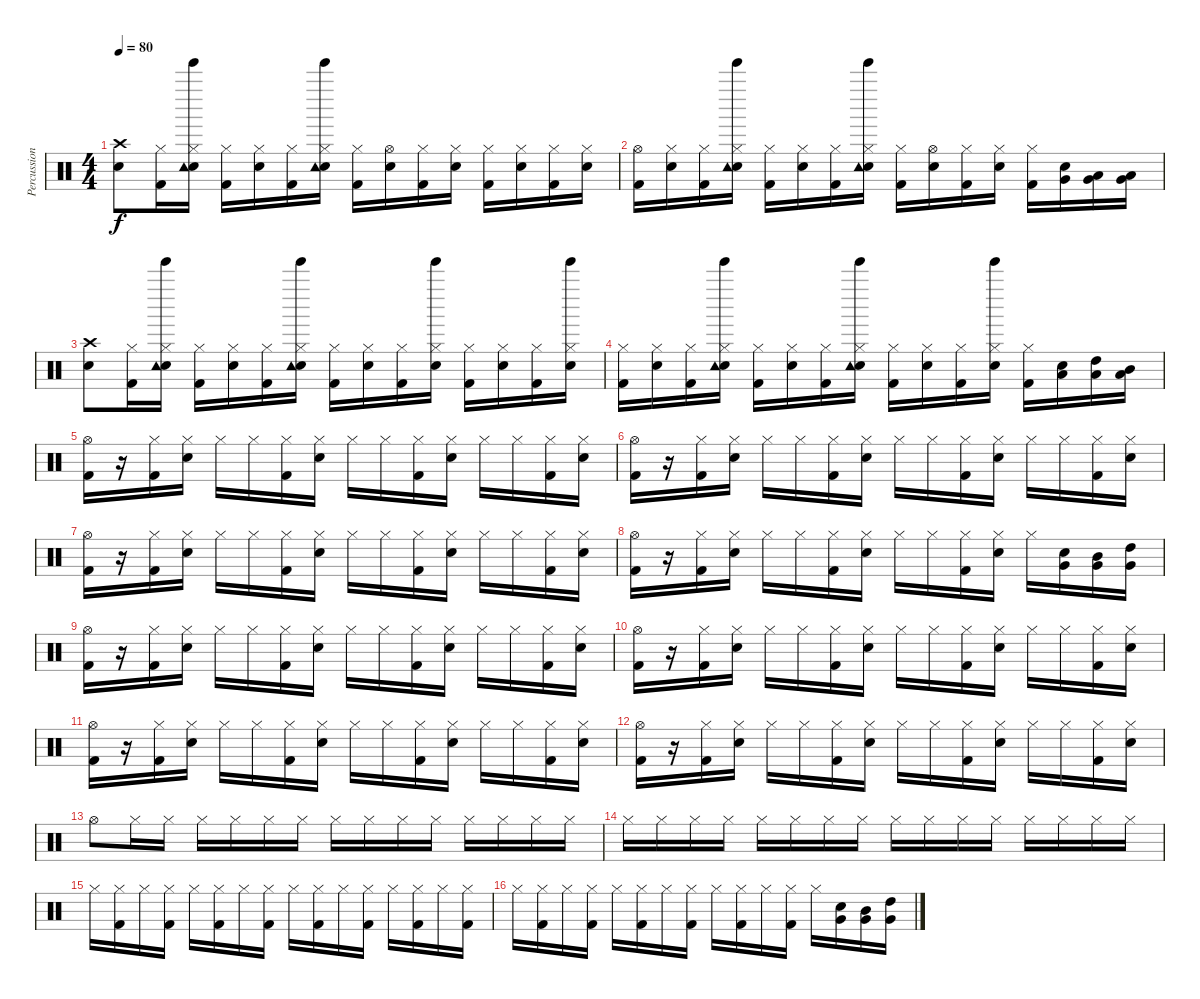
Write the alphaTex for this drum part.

\track ("Percussion" "Percussion") {instrument percussion}
\staff {score}
\articulation defaults
\ts (4 4)
\tempo 80
\clef neutral
\ks c
("Crash high (hit)" "Snare (hit) 2").8{dy f} ("Kick (hit) 2" "Hi-Hat (closed)").16 ("Snare (hit) 2" "Hi-Hat (closed)" "Tambourine (hit)" "Tinkle Bell (hit)").16 ("Kick (hit) 2" "Hi-Hat (closed)").16 ("Snare (hit) 2" "Hi-Hat (closed)").16 ("Kick (hit) 2" "Hi-Hat (closed)").16 ("Snare (hit) 2" "Hi-Hat (closed)" "Tambourine (hit)" "Tinkle Bell (hit)").16 ("Kick (hit) 2" "Hi-Hat (closed)").16 ("Snare (hit) 2" "Hi-Hat (open)").16 ("Kick (hit) 2" "Hi-Hat (closed)").16 ("Snare (hit) 2" "Hi-Hat (closed)").16 ("Kick (hit) 2" "Hi-Hat (closed)").16 ("Snare (hit) 2" "Hi-Hat (closed)").16 ("Kick (hit) 2" "Hi-Hat (closed)").16 ("Snare (hit) 2" "Hi-Hat (closed)").16 |
("Kick (hit) 2" "Hi-Hat (open)").16 ("Hi-Hat (closed)" "Snare (hit) 2").16 ("Kick (hit) 2" "Hi-Hat (closed)").16 ("Snare (hit) 2" "Hi-Hat (closed)" "Tambourine (hit)" "Tinkle Bell (hit)").16 ("Kick (hit) 2" "Hi-Hat (closed)").16 ("Snare (hit) 2" "Hi-Hat (closed)").16 ("Kick (hit) 2" "Hi-Hat (closed)").16 ("Snare (hit) 2" "Hi-Hat (closed)" "Tambourine (hit)" "Tinkle Bell (hit)").16 ("Kick (hit) 2" "Hi-Hat (closed)").16 ("Snare (hit) 2" "Hi-Hat (open)").16 ("Kick (hit) 2" "Hi-Hat (closed)").16 ("Snare (hit) 2" "Hi-Hat (closed)").16 ("Kick (hit) 2" "Hi-Hat (closed)").16 ("Snare (hit) 2" "Very Low Tom (hit)").16 ("Low Floor Tom (hit)" "Very Low Tom (hit)").16 ("Low Floor Tom (hit)" "Very Low Tom (hit)").16 |
("Crash high (hit)" "Snare (hit) 2").8 ("Kick (hit) 2" "Hi-Hat (closed)").16 ("Snare (hit) 2" "Hi-Hat (closed)" "Tambourine (hit)" "Tinkle Bell (hit)").16 ("Kick (hit) 2" "Hi-Hat (closed)").16 ("Snare (hit) 2" "Hi-Hat (closed)").16 ("Kick (hit) 2" "Hi-Hat (closed)").16 ("Snare (hit) 2" "Hi-Hat (closed)" "Tambourine (hit)" "Tinkle Bell (hit)").16 ("Kick (hit) 2" "Hi-Hat (closed)").16 ("Snare (hit) 2" "Hi-Hat (closed)").16 ("Kick (hit) 2" "Hi-Hat (closed)").16 ("Snare (hit) 2" "Hi-Hat (closed)" "Tinkle Bell (hit)").16 ("Kick (hit) 2" "Hi-Hat (closed)").16 ("Snare (hit) 2" "Hi-Hat (closed)").16 ("Kick (hit) 2" "Hi-Hat (closed)").16 ("Snare (hit) 2" "Hi-Hat (closed)" "Tinkle Bell (hit)").16 |
("Kick (hit) 2" "Hi-Hat (closed)").16 ("Hi-Hat (closed)" "Snare (hit) 2").16 ("Kick (hit) 2" "Hi-Hat (closed)").16 ("Snare (hit) 2" "Hi-Hat (closed)" "Tambourine (hit)" "Tinkle Bell (hit)").16 ("Kick (hit) 2" "Hi-Hat (closed)").16 ("Snare (hit) 2" "Hi-Hat (closed)").16 ("Kick (hit) 2" "Hi-Hat (closed)").16 ("Snare (hit) 2" "Hi-Hat (closed)" "Tambourine (hit)" "Tinkle Bell (hit)").16 ("Kick (hit) 2" "Hi-Hat (closed)").16 ("Snare (hit) 2" "Hi-Hat (closed)").16 ("Kick (hit) 2" "Hi-Hat (closed)").16 ("Snare (hit) 2" "Hi-Hat (closed)" "Tinkle Bell (hit)").16 ("Kick (hit) 2" "Hi-Hat (closed)").16 ("Snare (hit) 2" "Low Floor Tom (hit)").16 ("Low Floor Tom (hit)" "High Tom (hit)").16 ("Low Floor Tom (hit)" "Mid Tom (hit)").16 |
("Hi-Hat (open)" "Kick (hit) 2").16 r.16 ("Hi-Hat (closed)" "Kick (hit) 2").16 ("Hi-Hat (closed)" "Snare (hit) 2").16 "Hi-Hat (closed)".16 "Hi-Hat (closed)".16 ("Hi-Hat (closed)" "Kick (hit) 2").16 ("Hi-Hat (closed)" "Snare (hit) 2").16 "Hi-Hat (closed)".16 "Hi-Hat (closed)".16 ("Hi-Hat (closed)" "Kick (hit) 2").16 ("Hi-Hat (closed)" "Snare (hit) 2").16 "Hi-Hat (closed)".16 "Hi-Hat (closed)".16 ("Hi-Hat (closed)" "Kick (hit) 2").16 ("Hi-Hat (closed)" "Snare (hit) 2").16 |
("Hi-Hat (open)" "Kick (hit) 2").16 r.16 ("Hi-Hat (closed)" "Kick (hit) 2").16 ("Hi-Hat (closed)" "Snare (hit) 2").16 "Hi-Hat (closed)".16 "Hi-Hat (closed)".16 ("Hi-Hat (closed)" "Kick (hit) 2").16 ("Hi-Hat (closed)" "Snare (hit) 2").16 "Hi-Hat (closed)".16 "Hi-Hat (closed)".16 ("Hi-Hat (closed)" "Kick (hit) 2").16 ("Hi-Hat (closed)" "Snare (hit) 2").16 "Hi-Hat (closed)".16 "Hi-Hat (closed)".16 ("Hi-Hat (closed)" "Kick (hit) 2").16 ("Hi-Hat (closed)" "Snare (hit) 2").16 |
("Hi-Hat (open)" "Kick (hit) 2").16 r.16 ("Hi-Hat (closed)" "Kick (hit) 2").16 ("Hi-Hat (closed)" "Snare (hit) 2").16 "Hi-Hat (closed)".16 "Hi-Hat (closed)".16 ("Hi-Hat (closed)" "Kick (hit) 2").16 ("Hi-Hat (closed)" "Snare (hit) 2").16 "Hi-Hat (closed)".16 "Hi-Hat (closed)".16 ("Hi-Hat (closed)" "Kick (hit) 2").16 ("Hi-Hat (closed)" "Snare (hit) 2").16 "Hi-Hat (closed)".16 "Hi-Hat (closed)".16 ("Hi-Hat (closed)" "Kick (hit) 2").16 ("Hi-Hat (closed)" "Snare (hit) 2").16 |
("Hi-Hat (open)" "Kick (hit) 2").16 r.16 ("Hi-Hat (closed)" "Kick (hit) 2").16 ("Hi-Hat (closed)" "Snare (hit) 2").16 "Hi-Hat (closed)".16 "Hi-Hat (closed)".16 ("Hi-Hat (closed)" "Kick (hit) 2").16 ("Hi-Hat (closed)" "Snare (hit) 2").16 "Hi-Hat (closed)".16 "Hi-Hat (closed)".16 ("Hi-Hat (closed)" "Kick (hit) 2").16 ("Hi-Hat (closed)" "Snare (hit) 2").16 "Hi-Hat (closed)".16 ("Very Low Tom (hit)" "Snare (hit) 2").16 ("Mid Tom (hit)" "Very Low Tom (hit)").16 ("High Tom (hit)" "Very Low Tom (hit)").16 |
("Hi-Hat (open)" "Kick (hit) 2").16 r.16 ("Hi-Hat (closed)" "Kick (hit) 2").16 ("Hi-Hat (closed)" "Snare (hit) 2").16 "Hi-Hat (closed)".16 "Hi-Hat (closed)".16 ("Hi-Hat (closed)" "Kick (hit) 2").16 ("Hi-Hat (closed)" "Snare (hit) 2").16 "Hi-Hat (closed)".16 "Hi-Hat (closed)".16 ("Hi-Hat (closed)" "Kick (hit) 2").16 ("Hi-Hat (closed)" "Snare (hit) 2").16 "Hi-Hat (closed)".16 "Hi-Hat (closed)".16 ("Hi-Hat (closed)" "Kick (hit) 2").16 ("Hi-Hat (closed)" "Snare (hit) 2").16 |
("Hi-Hat (open)" "Kick (hit) 2").16 r.16 ("Hi-Hat (closed)" "Kick (hit) 2").16 ("Hi-Hat (closed)" "Snare (hit) 2").16 "Hi-Hat (closed)".16 "Hi-Hat (closed)".16 ("Hi-Hat (closed)" "Kick (hit) 2").16 ("Hi-Hat (closed)" "Snare (hit) 2").16 "Hi-Hat (closed)".16 "Hi-Hat (closed)".16 ("Hi-Hat (closed)" "Kick (hit) 2").16 ("Hi-Hat (closed)" "Snare (hit) 2").16 "Hi-Hat (closed)".16 "Hi-Hat (closed)".16 ("Hi-Hat (closed)" "Kick (hit) 2").16 ("Hi-Hat (closed)" "Snare (hit) 2").16 |
("Hi-Hat (open)" "Kick (hit) 2").16 r.16 ("Hi-Hat (closed)" "Kick (hit) 2").16 ("Hi-Hat (closed)" "Snare (hit) 2").16 "Hi-Hat (closed)".16 "Hi-Hat (closed)".16 ("Hi-Hat (closed)" "Kick (hit) 2").16 ("Hi-Hat (closed)" "Snare (hit) 2").16 "Hi-Hat (closed)".16 "Hi-Hat (closed)".16 ("Hi-Hat (closed)" "Kick (hit) 2").16 ("Hi-Hat (closed)" "Snare (hit) 2").16 "Hi-Hat (closed)".16 "Hi-Hat (closed)".16 ("Hi-Hat (closed)" "Kick (hit) 2").16 ("Hi-Hat (closed)" "Snare (hit) 2").16 |
("Hi-Hat (open)" "Kick (hit) 2").16 r.16 ("Hi-Hat (closed)" "Kick (hit) 2").16 ("Hi-Hat (closed)" "Snare (hit) 2").16 "Hi-Hat (closed)".16 "Hi-Hat (closed)".16 ("Hi-Hat (closed)" "Kick (hit) 2").16 ("Hi-Hat (closed)" "Snare (hit) 2").16 "Hi-Hat (closed)".16 "Hi-Hat (closed)".16 ("Hi-Hat (closed)" "Kick (hit) 2").16 ("Hi-Hat (closed)" "Snare (hit) 2").16 "Hi-Hat (closed)".16 "Hi-Hat (closed)".16 ("Hi-Hat (closed)" "Kick (hit) 2").16 ("Hi-Hat (closed)" "Snare (hit) 2").16 |
"Hi-Hat (open)".8 "Hi-Hat (closed)".16 "Hi-Hat (closed)".16 "Hi-Hat (closed)".16 "Hi-Hat (closed)".16 "Hi-Hat (closed)".16 "Hi-Hat (closed)".16 "Hi-Hat (closed)".16 "Hi-Hat (closed)".16 "Hi-Hat (closed)".16 "Hi-Hat (closed)".16 "Hi-Hat (closed)".16 "Hi-Hat (closed)".16 "Hi-Hat (closed)".16 "Hi-Hat (closed)".16 |
"Hi-Hat (closed)".16 "Hi-Hat (closed)".16 "Hi-Hat (closed)".16 "Hi-Hat (closed)".16 "Hi-Hat (closed)".16 "Hi-Hat (closed)".16 "Hi-Hat (closed)".16 "Hi-Hat (closed)".16 "Hi-Hat (closed)".16 "Hi-Hat (closed)".16 "Hi-Hat (closed)".16 "Hi-Hat (closed)".16 "Hi-Hat (closed)".16 "Hi-Hat (closed)".16 "Hi-Hat (closed)".16 "Hi-Hat (closed)".16 |
"Hi-Hat (closed)".16 ("Hi-Hat (closed)" "Kick (hit) 2").16 "Hi-Hat (closed)".16 ("Hi-Hat (closed)" "Kick (hit) 2").16 "Hi-Hat (closed)".16 ("Hi-Hat (closed)" "Kick (hit) 2").16 "Hi-Hat (closed)".16 ("Hi-Hat (closed)" "Kick (hit) 2").16 "Hi-Hat (closed)".16 ("Hi-Hat (closed)" "Kick (hit) 2").16 "Hi-Hat (closed)".16 ("Hi-Hat (closed)" "Kick (hit) 2").16 "Hi-Hat (closed)".16 ("Hi-Hat (closed)" "Kick (hit) 2").16 "Hi-Hat (closed)".16 ("Hi-Hat (closed)" "Kick (hit) 2").16 |
"Hi-Hat (closed)".16 ("Hi-Hat (closed)" "Kick (hit) 2").16 "Hi-Hat (closed)".16 ("Hi-Hat (closed)" "Kick (hit) 2").16 "Hi-Hat (closed)".16 ("Hi-Hat (closed)" "Kick (hit) 2").16 "Hi-Hat (closed)".16 ("Hi-Hat (closed)" "Kick (hit) 2").16 "Hi-Hat (closed)".16 ("Hi-Hat (closed)" "Kick (hit) 2").16 "Hi-Hat (closed)".16 ("Hi-Hat (closed)" "Kick (hit) 2").16 "Hi-Hat (closed)".16 ("Very Low Tom (hit)" "Snare (hit) 2").16 ("Mid Tom (hit)" "Very Low Tom (hit)").16 ("High Tom (hit)" "Very Low Tom (hit)").16
